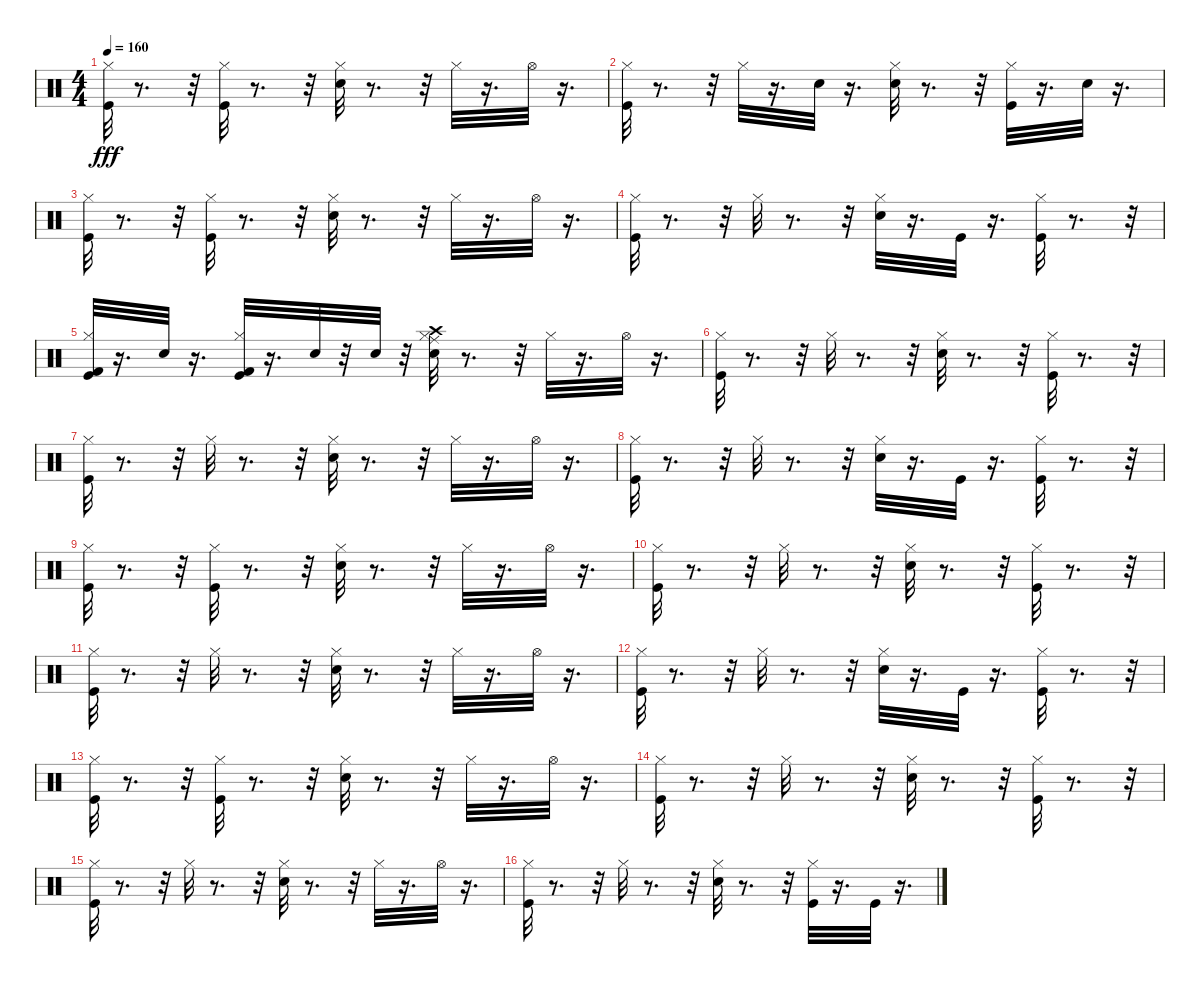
\track "" {instrument percussion}
\staff {score}
\articulation defaults
\ts (4 4)
\tempo 160
\clef neutral
\ks c
("Kick (hit)" "Hi-Hat (closed)").32{dy fff} r.8{d} r.32 ("Hi-Hat (closed)" "Kick (hit)").32 r.8{d} r.32 ("Hi-Hat (closed)" "Electric Snare (hit)").32 r.8{d} r.32 "Hi-Hat (closed)".32 r.16{d} "Hi-Hat (open)".32 r.16{d} |
("Kick (hit)" "Hi-Hat (closed)").32 r.8{d} r.32 "Hi-Hat (closed)".32 r.16{d} "Electric Snare (hit)".32 r.16{d} ("Electric Snare (hit)" "Hi-Hat (closed)").32 r.8{d} r.32 ("Kick (hit)" "Hi-Hat (closed)").32 r.16{d} "Electric Snare (hit)".32 r.16{d} |
("Kick (hit)" "Hi-Hat (closed)").32 r.8{d} r.32 ("Kick (hit)" "Hi-Hat (closed)").32 r.8{d} r.32 ("Electric Snare (hit)" "Hi-Hat (closed)").32 r.8{d} r.32 "Hi-Hat (closed)".32 r.16{d} "Hi-Hat (open)".32 r.16{d} |
("Kick (hit)" "Hi-Hat (closed)").32 r.8{d} r.32 "Hi-Hat (closed)".32 r.8{d} r.32 ("Electric Snare (hit)" "Hi-Hat (closed)").32 r.16{d} "Kick (hit)".32 r.16{d} ("Kick (hit)" "Hi-Hat (closed)").32 r.8{d} r.32 |
("Kick (hit)" "Hi-Hat (closed)" "Kick (hit) 2").32 r.16{d} "Electric Snare (hit)".32 r.16{d} ("Kick (hit)" "Hi-Hat (closed)" "Kick (hit) 2").32 r.16{d} "Electric Snare (hit)".32 r.32 "Electric Snare (hit)".32 r.32 ("Electric Snare (hit)" "Hi-Hat (closed)" "Ride (middle)" "Crash high (hit)").32 r.8{d} r.32 "Hi-Hat (closed)".32 r.16{d} "Hi-Hat (open)".32 r.16{d} |
("Kick (hit)" "Hi-Hat (closed)").32 r.8{d} r.32 "Hi-Hat (closed)".32 r.8{d} r.32 ("Electric Snare (hit)" "Hi-Hat (closed)").32 r.8{d} r.32 ("Kick (hit)" "Hi-Hat (closed)").32 r.8{d} r.32 |
("Kick (hit)" "Hi-Hat (closed)").32 r.8{d} r.32 "Hi-Hat (closed)".32 r.8{d} r.32 ("Electric Snare (hit)" "Hi-Hat (closed)").32 r.8{d} r.32 "Hi-Hat (closed)".32 r.16{d} "Hi-Hat (open)".32 r.16{d} |
("Kick (hit)" "Hi-Hat (closed)").32 r.8{d} r.32 "Hi-Hat (closed)".32 r.8{d} r.32 ("Electric Snare (hit)" "Hi-Hat (closed)").32 r.16{d} "Kick (hit)".32 r.16{d} ("Kick (hit)" "Hi-Hat (closed)").32 r.8{d} r.32 |
("Kick (hit)" "Hi-Hat (closed)").32 r.8{d} r.32 ("Hi-Hat (closed)" "Kick (hit)").32 r.8{d} r.32 ("Hi-Hat (closed)" "Electric Snare (hit)").32 r.8{d} r.32 "Hi-Hat (closed)".32 r.16{d} "Hi-Hat (open)".32 r.16{d} |
("Hi-Hat (closed)" "Kick (hit)").32 r.8{d} r.32 "Hi-Hat (closed)".32 r.8{d} r.32 ("Electric Snare (hit)" "Hi-Hat (closed)").32 r.8{d} r.32 ("Kick (hit)" "Hi-Hat (closed)").32 r.8{d} r.32 |
("Kick (hit)" "Hi-Hat (closed)").32 r.8{d} r.32 "Hi-Hat (closed)".32 r.8{d} r.32 ("Electric Snare (hit)" "Hi-Hat (closed)").32 r.8{d} r.32 "Hi-Hat (closed)".32 r.16{d} "Hi-Hat (open)".32 r.16{d} |
("Kick (hit)" "Hi-Hat (closed)").32 r.8{d} r.32 "Hi-Hat (closed)".32 r.8{d} r.32 ("Electric Snare (hit)" "Hi-Hat (closed)").32 r.16{d} "Kick (hit)".32 r.16{d} ("Kick (hit)" "Hi-Hat (closed)").32 r.8{d} r.32 |
("Kick (hit)" "Hi-Hat (closed)").32 r.8{d} r.32 ("Hi-Hat (closed)" "Kick (hit)").32 r.8{d} r.32 ("Hi-Hat (closed)" "Electric Snare (hit)").32 r.8{d} r.32 "Hi-Hat (closed)".32 r.16{d} "Hi-Hat (open)".32 r.16{d} |
("Hi-Hat (closed)" "Kick (hit)").32 r.8{d} r.32 "Hi-Hat (closed)".32 r.8{d} r.32 ("Hi-Hat (closed)" "Electric Snare (hit)").32 r.8{d} r.32 ("Hi-Hat (closed)" "Kick (hit)").32 r.8{d} r.32 |
("Hi-Hat (closed)" "Kick (hit)").32 r.8{d} r.32 "Hi-Hat (closed)".32 r.8{d} r.32 ("Hi-Hat (closed)" "Electric Snare (hit)").32 r.8{d} r.32 "Hi-Hat (closed)".32 r.16{d} "Hi-Hat (open)".32 r.16{d} |
("Hi-Hat (closed)" "Kick (hit)").32 r.8{d} r.32 "Hi-Hat (closed)".32 r.8{d} r.32 ("Hi-Hat (closed)" "Electric Snare (hit)").32 r.8{d} r.32 ("Hi-Hat (closed)" "Kick (hit)").32 r.16{d} "Kick (hit)".32 r.16{d}
